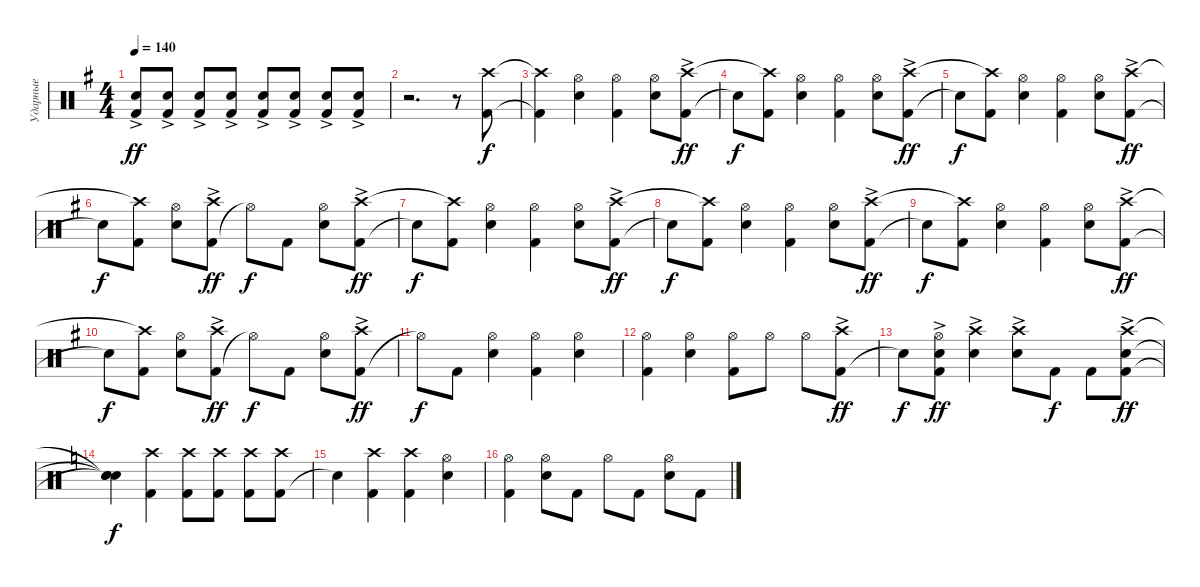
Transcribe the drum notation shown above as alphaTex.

\track ("Ударные" "Ударные") {instrument percussion}
\staff {score}
\articulation defaults
\ts (4 4)
\tempo 140
\clef neutral
\ks g
("Snare (hit) 2" "Kick (hit) 2"{ac}).8{dy ff} ("Snare (hit) 2" "Kick (hit) 2"{ac}).8 ("Snare (hit) 2" "Kick (hit) 2"{ac}).8 ("Snare (hit) 2" "Kick (hit) 2"{ac}).8 ("Snare (hit) 2" "Kick (hit) 2"{ac}).8 ("Snare (hit) 2" "Kick (hit) 2"{ac}).8 ("Snare (hit) 2" "Kick (hit) 2"{ac}).8 ("Snare (hit) 2" "Kick (hit) 2"{ac}).8 |
r.2{d} r.8 ("Kick (hit) 2" "Crash high (hit)").8{dy f} |
("Kick (hit) 2"{t} "Crash high (hit)"{t}).4 ("Snare (hit) 2" "Hi-Hat (open)").4 ("Kick (hit) 2" "Hi-Hat (open)").4 ("Snare (hit) 2" "Hi-Hat (open)").8 ("Kick (hit) 2"{ac} "Crash high (hit)"{ac}).8{dy ff} |
"Snare (hit)"{t}.8{dy f} ("Kick (hit) 2" "Crash high (hit)"{t}).8 ("Snare (hit) 2" "Hi-Hat (open)").4 ("Kick (hit) 2" "Hi-Hat (open)").4 ("Snare (hit) 2" "Hi-Hat (open)").8 ("Kick (hit) 2"{ac} "Crash high (hit)"{ac}).8{dy ff} |
"Snare (hit)"{t}.8{dy f} ("Kick (hit) 2" "Crash high (hit)"{t}).8 ("Snare (hit) 2" "Hi-Hat (open)").4 ("Kick (hit) 2" "Hi-Hat (open)").4 ("Snare (hit) 2" "Hi-Hat (open)").8 ("Kick (hit) 2"{ac} "Crash high (hit)"{ac}).8{dy ff} |
"Snare (hit)"{t}.8{dy f} ("Kick (hit) 2" "Crash high (hit)"{t}).8 ("Snare (hit) 2" "Hi-Hat (open)").8 ("Kick (hit) 2"{ac} "Crash high (hit)"{ac}).8{dy ff} "Hi-Hat (open)"{t}.8{dy f} "Kick (hit) 2".8 ("Snare (hit) 2" "Hi-Hat (open)").8 ("Kick (hit) 2"{ac} "Crash high (hit)"{ac}).8{dy ff} |
"Snare (hit)"{t}.8{dy f} ("Kick (hit) 2" "Crash high (hit)"{t}).8 ("Snare (hit) 2" "Hi-Hat (open)").4 ("Kick (hit) 2" "Hi-Hat (open)").4 ("Snare (hit) 2" "Hi-Hat (open)").8 ("Kick (hit) 2"{ac} "Crash high (hit)"{ac}).8{dy ff} |
"Snare (hit)"{t}.8{dy f} ("Kick (hit) 2" "Crash high (hit)"{t}).8 ("Snare (hit) 2" "Hi-Hat (open)").4 ("Kick (hit) 2" "Hi-Hat (open)").4 ("Snare (hit) 2" "Hi-Hat (open)").8 ("Kick (hit) 2"{ac} "Crash high (hit)"{ac}).8{dy ff} |
"Snare (hit)"{t}.8{dy f} ("Kick (hit) 2" "Crash high (hit)"{t}).8 ("Snare (hit) 2" "Hi-Hat (open)").4 ("Kick (hit) 2" "Hi-Hat (open)").4 ("Snare (hit) 2" "Hi-Hat (open)").8 ("Kick (hit) 2"{ac} "Crash high (hit)"{ac}).8{dy ff} |
"Snare (hit)"{t}.8{dy f} ("Kick (hit) 2" "Crash high (hit)"{t}).8 ("Snare (hit) 2" "Hi-Hat (open)").8 ("Kick (hit) 2"{ac} "Crash high (hit)"{ac}).8{dy ff} "Hi-Hat (open)"{t}.8{dy f} "Kick (hit) 2".8 ("Snare (hit) 2" "Hi-Hat (open)").8 ("Kick (hit) 2"{ac} "Crash high (hit)"{ac}).8{dy ff} |
"Hi-Hat (open)"{t}.8{dy f} "Kick (hit) 2".8 ("Snare (hit) 2" "Hi-Hat (open)").4 ("Kick (hit) 2" "Hi-Hat (open)").4 ("Snare (hit) 2" "Hi-Hat (open)").4 |
("Kick (hit) 2" "Hi-Hat (open)").4 ("Snare (hit) 2" "Hi-Hat (open)").4 ("Kick (hit) 2" "Hi-Hat (open)").8 "Hi-Hat (open)".8 "Hi-Hat (open)".8 ("Kick (hit) 2"{ac} "Crash high (hit)"{ac}).8{dy ff} |
"Snare (hit)"{t}.8{dy f} ("Kick (hit) 2"{ac} "Snare (hit) 2" "Hi-Hat (open)"{ac}).8{dy ff} ("Snare (hit) 2" "Crash high (hit)"{ac}).4 ("Snare (hit) 2" "Crash high (hit)"{ac}).8 "Kick (hit) 2".8{dy f} "Kick (hit) 2".8 ("Kick (hit) 2" "Snare (hit) 2" "Crash high (hit)"{ac}).8{dy ff} |
\ks c
("Snare (hit)"{t} "Snare (hit)"{t} "Snare (hit)"{t}).4{dy f} ("Kick (hit) 2" "Crash high (hit)").4 ("Kick (hit) 2" "Crash high (hit)").8 ("Kick (hit) 2" "Crash high (hit)").8 ("Kick (hit) 2" "Crash high (hit)").8 ("Kick (hit) 2" "Crash high (hit)").8 |
"Snare (hit)"{t}.4 ("Kick (hit) 2" "Crash high (hit)").4 ("Kick (hit) 2" "Crash high (hit)").4 ("Snare (hit) 2" "Hi-Hat (open)").4 |
("Kick (hit) 2" "Hi-Hat (open)").4 ("Snare (hit) 2" "Hi-Hat (open)").8 "Kick (hit) 2".8 "Hi-Hat (open)".8 "Kick (hit) 2".8 ("Snare (hit) 2" "Hi-Hat (open)").8 "Kick (hit) 2".8
